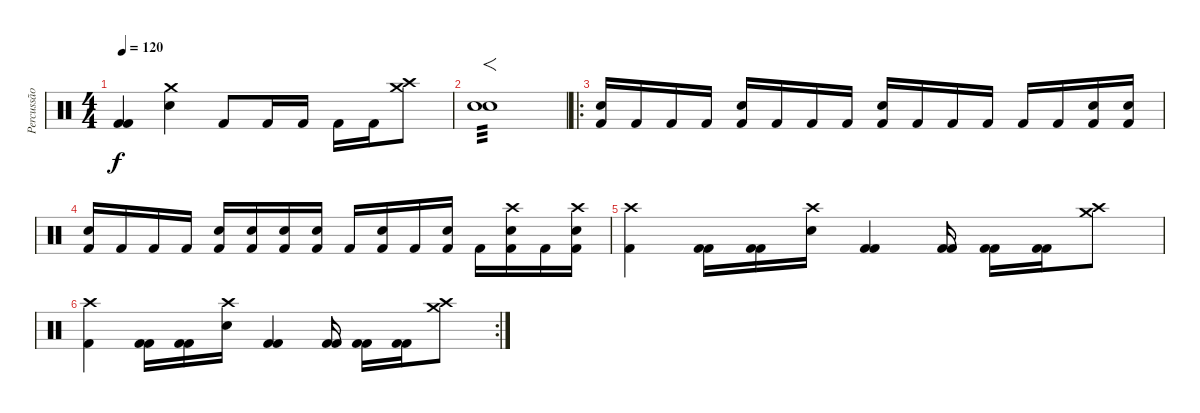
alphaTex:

\track ("Percussão" "Percussão") {instrument percussion}
\staff {score}
\articulation defaults
\ts (4 4)
\tempo 120
\clef neutral
\ks c
("Kick (hit) 2" "Kick (hit) 2").4{dy f} ("Snare (hit) 2" "Crash medium (hit)").4 "Kick (hit) 2".8 "Kick (hit) 2".16 "Kick (hit) 2".16 "Kick (hit) 2".16 "Kick (hit) 2".16 ("Crash high (hit)" "Crash medium (hit)").8 |
("Snare (hit) 2" "Snare (hit) 2").1{f tp 3} |
\ro
("Snare (hit) 2" "Kick (hit) 2").16 "Kick (hit) 2".16 "Kick (hit) 2".16 "Kick (hit) 2".16 ("Snare (hit) 2" "Kick (hit) 2").16 "Kick (hit) 2".16 "Kick (hit) 2".16 "Kick (hit) 2".16 ("Snare (hit) 2" "Kick (hit) 2").16 "Kick (hit) 2".16 "Kick (hit) 2".16 "Kick (hit) 2".16 "Kick (hit) 2".16 "Kick (hit) 2".16 ("Snare (hit) 2" "Kick (hit) 2").16 ("Snare (hit) 2" "Kick (hit) 2").16 |
("Snare (hit) 2" "Kick (hit) 2").16 "Kick (hit) 2".16 "Kick (hit) 2".16 "Kick (hit) 2".16 ("Snare (hit) 2" "Kick (hit) 2").16 ("Snare (hit) 2" "Kick (hit) 2").16 ("Snare (hit) 2" "Kick (hit) 2").16 ("Snare (hit) 2" "Kick (hit) 2").16 "Kick (hit) 2".16 ("Snare (hit) 2" "Kick (hit) 2").16 "Kick (hit) 2".16 ("Snare (hit) 2" "Kick (hit) 2").16 "Kick (hit) 2".16 ("Snare (hit) 2" "Kick (hit) 2" "Crash high (hit)").16 "Kick (hit) 2".16 ("Snare (hit) 2" "Kick (hit) 2" "Crash high (hit)").16 |
("Kick (hit) 2" "Crash high (hit)").4 ("Kick (hit) 2" "Kick (hit) 2").16 ("Kick (hit) 2" "Kick (hit) 2").16 ("Snare (hit) 2" "Crash high (hit)").16 ("Kick (hit) 2" "Kick (hit) 2").4 ("Kick (hit) 2" "Kick (hit) 2").16 ("Kick (hit) 2" "Kick (hit) 2").16 ("Kick (hit) 2" "Kick (hit) 2").16 ("Crash high (hit)" "Crash medium (hit)").8 |
\rc 2
("Kick (hit) 2" "Crash high (hit)").4 ("Kick (hit) 2" "Kick (hit) 2").16 ("Kick (hit) 2" "Kick (hit) 2").16 ("Snare (hit) 2" "Crash high (hit)").16 ("Kick (hit) 2" "Kick (hit) 2").4 ("Kick (hit) 2" "Kick (hit) 2").16 ("Kick (hit) 2" "Kick (hit) 2").16 ("Kick (hit) 2" "Kick (hit) 2").16 ("Crash high (hit)" "Crash medium (hit)").8
